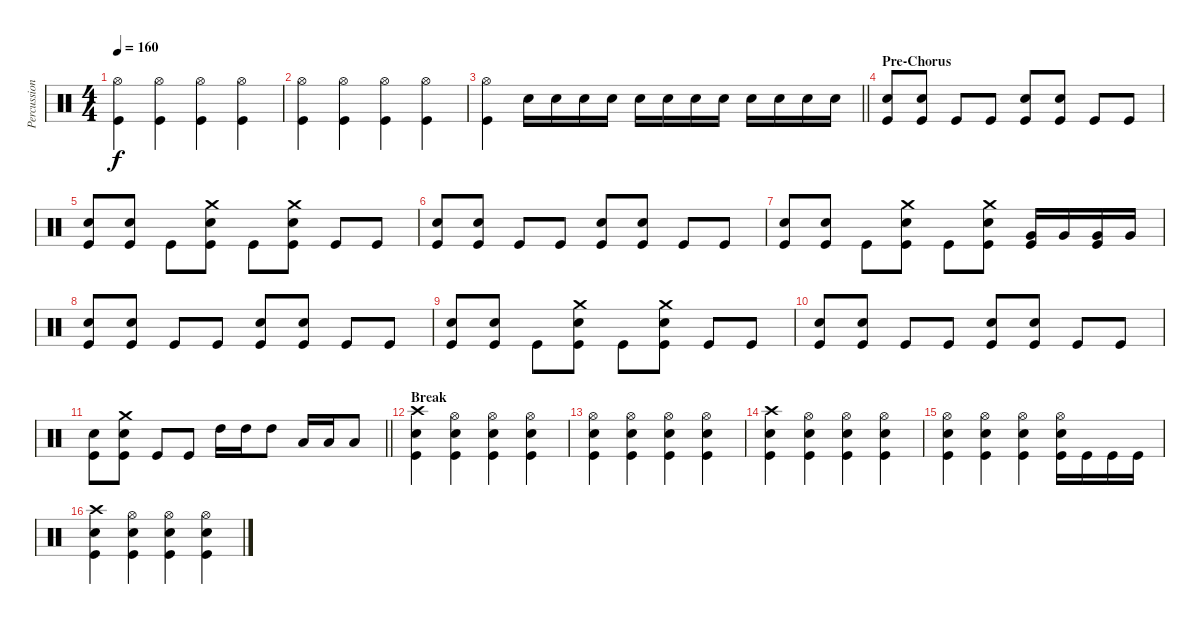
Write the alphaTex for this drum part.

\track ("Percussion" "Percussion") {instrument percussion}
\staff {score}
\articulation defaults
\ts (4 4)
\tempo 160
\clef neutral
\ks c
("Hi-Hat (open)" "Kick (hit)").4{dy f} ("Hi-Hat (open)" "Kick (hit)").4 ("Hi-Hat (open)" "Kick (hit)").4 ("Hi-Hat (open)" "Kick (hit)").4 |
("Hi-Hat (open)" "Kick (hit)").4 ("Hi-Hat (open)" "Kick (hit)").4 ("Hi-Hat (open)" "Kick (hit)").4 ("Hi-Hat (open)" "Kick (hit)").4 |
\barLineRight lightlight
("Hi-Hat (open)" "Kick (hit)").4 "Electric Snare (hit)".16 "Electric Snare (hit)".16 "Electric Snare (hit)".16 "Electric Snare (hit)".16 "Electric Snare (hit)".16 "Electric Snare (hit)".16 "Electric Snare (hit)".16 "Electric Snare (hit)".16 "Electric Snare (hit)".16 "Electric Snare (hit)".16 "Electric Snare (hit)".16 "Electric Snare (hit)".16 |
\section ("" "Pre-Chorus")
("Electric Snare (hit)" "Kick (hit)").8 ("Electric Snare (hit)" "Kick (hit)").8 "Kick (hit)".8 "Kick (hit)".8 ("Electric Snare (hit)" "Kick (hit)").8 ("Electric Snare (hit)" "Kick (hit)").8 "Kick (hit)".8 "Kick (hit)".8 |
("Electric Snare (hit)" "Kick (hit)").8 ("Electric Snare (hit)" "Kick (hit)").8 "Kick (hit)".8 ("Crash medium (hit)" "Electric Snare (hit)" "Kick (hit)").8 "Kick (hit)".8 ("Crash medium (hit)" "Electric Snare (hit)" "Kick (hit)").8 "Kick (hit)".8 "Kick (hit)".8 |
("Electric Snare (hit)" "Kick (hit)").8 ("Electric Snare (hit)" "Kick (hit)").8 "Kick (hit)".8 "Kick (hit)".8 ("Electric Snare (hit)" "Kick (hit)").8 ("Electric Snare (hit)" "Kick (hit)").8 "Kick (hit)".8 "Kick (hit)".8 |
("Electric Snare (hit)" "Kick (hit)").8 ("Electric Snare (hit)" "Kick (hit)").8 "Kick (hit)".8 ("Crash medium (hit)" "Electric Snare (hit)" "Kick (hit)").8 "Kick (hit)".8 ("Crash medium (hit)" "Electric Snare (hit)" "Kick (hit)").8 ("Very Low Tom (hit)" "Kick (hit)").16 "Very Low Tom (hit)".16 ("Very Low Tom (hit)" "Kick (hit)").16 "Very Low Tom (hit)".16 |
("Electric Snare (hit)" "Kick (hit)").8 ("Electric Snare (hit)" "Kick (hit)").8 "Kick (hit)".8 "Kick (hit)".8 ("Electric Snare (hit)" "Kick (hit)").8 ("Electric Snare (hit)" "Kick (hit)").8 "Kick (hit)".8 "Kick (hit)".8 |
("Electric Snare (hit)" "Kick (hit)").8 ("Electric Snare (hit)" "Kick (hit)").8 "Kick (hit)".8 ("Crash medium (hit)" "Electric Snare (hit)" "Kick (hit)").8 "Kick (hit)".8 ("Crash medium (hit)" "Electric Snare (hit)" "Kick (hit)").8 "Kick (hit)".8 "Kick (hit)".8 |
("Electric Snare (hit)" "Kick (hit)").8 ("Electric Snare (hit)" "Kick (hit)").8 "Kick (hit)".8 "Kick (hit)".8 ("Electric Snare (hit)" "Kick (hit)").8 ("Electric Snare (hit)" "Kick (hit)").8 "Kick (hit)".8 "Kick (hit)".8 |
\barLineRight lightlight
("Electric Snare (hit)" "Kick (hit)").8 ("Crash medium (hit)" "Electric Snare (hit)" "Kick (hit)").8 "Kick (hit)".8 "Kick (hit)".8 "High Tom (hit)".16 "High Tom (hit)".16 "High Tom (hit)".8 "Low Floor Tom (hit)".16 "Low Floor Tom (hit)".16 "Low Floor Tom (hit)".8 |
\section ("" "Break")
("Crash high (hit)" "Electric Snare (hit)" "Kick (hit)").4 ("Hi-Hat (open)" "Electric Snare (hit)" "Kick (hit)").4 ("Hi-Hat (open)" "Electric Snare (hit)" "Kick (hit)").4 ("Hi-Hat (open)" "Electric Snare (hit)" "Kick (hit)").4 |
("Hi-Hat (open)" "Electric Snare (hit)" "Kick (hit)").4 ("Hi-Hat (open)" "Electric Snare (hit)" "Kick (hit)").4 ("Hi-Hat (open)" "Electric Snare (hit)" "Kick (hit)").4 ("Hi-Hat (open)" "Electric Snare (hit)" "Kick (hit)").4 |
("Crash high (hit)" "Electric Snare (hit)" "Kick (hit)").4 ("Hi-Hat (open)" "Electric Snare (hit)" "Kick (hit)").4 ("Hi-Hat (open)" "Electric Snare (hit)" "Kick (hit)").4 ("Hi-Hat (open)" "Electric Snare (hit)" "Kick (hit)").4 |
("Hi-Hat (open)" "Electric Snare (hit)" "Kick (hit)").4 ("Hi-Hat (open)" "Electric Snare (hit)" "Kick (hit)").4 ("Hi-Hat (open)" "Electric Snare (hit)" "Kick (hit)").4 ("Hi-Hat (open)" "Electric Snare (hit)" "Kick (hit)").16 "Kick (hit)".16 "Kick (hit)".16 "Kick (hit)".16 |
("Crash high (hit)" "Electric Snare (hit)" "Kick (hit)").4 ("Hi-Hat (open)" "Electric Snare (hit)" "Kick (hit)").4 ("Hi-Hat (open)" "Electric Snare (hit)" "Kick (hit)").4 ("Hi-Hat (open)" "Electric Snare (hit)" "Kick (hit)").4
